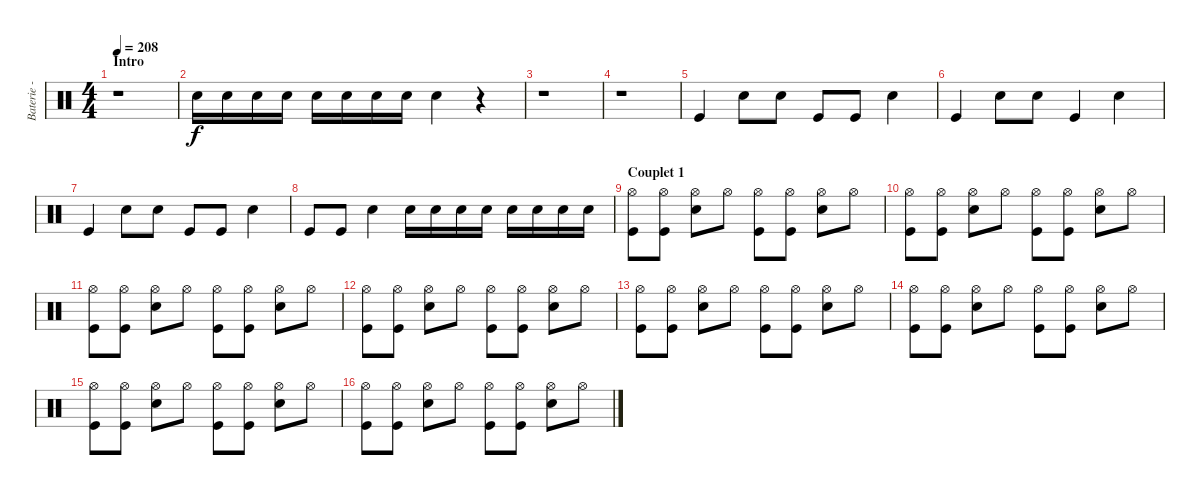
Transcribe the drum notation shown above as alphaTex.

\track ("Baterie - Guillaume" "Baterie - ") {instrument percussion}
\staff {score}
\articulation defaults
\ts (4 4)
\section ("" "Intro")
\tempo 208
\clef neutral
\ks c
r.1{dy f} |
"Electric Snare (hit)".16 "Electric Snare (hit)".16 "Electric Snare (hit)".16 "Electric Snare (hit)".16 "Electric Snare (hit)".16 "Electric Snare (hit)".16 "Electric Snare (hit)".16 "Electric Snare (hit)".16 "Electric Snare (hit)".4 r.4 |
r.1 |
r.1 |
"Kick (hit)".4 "Electric Snare (hit)".8 "Electric Snare (hit)".8 "Kick (hit)".8 "Kick (hit)".8 "Electric Snare (hit)".4 |
"Kick (hit)".4 "Electric Snare (hit)".8 "Electric Snare (hit)".8 "Kick (hit)".4 "Electric Snare (hit)".4 |
"Kick (hit)".4 "Electric Snare (hit)".8 "Electric Snare (hit)".8 "Kick (hit)".8 "Kick (hit)".8 "Electric Snare (hit)".4 |
"Kick (hit)".8 "Kick (hit)".8 "Electric Snare (hit)".4 "Electric Snare (hit)".16 "Electric Snare (hit)".16 "Electric Snare (hit)".16 "Electric Snare (hit)".16 "Electric Snare (hit)".16 "Electric Snare (hit)".16 "Electric Snare (hit)".16 "Electric Snare (hit)".16 |
\section ("" "Couplet 1")
("Hi-Hat (open)" "Kick (hit)").8 ("Hi-Hat (open)" "Kick (hit)").8 ("Hi-Hat (open)" "Electric Snare (hit)").8 "Hi-Hat (open)".8 ("Hi-Hat (open)" "Kick (hit)").8 ("Hi-Hat (open)" "Kick (hit)").8 ("Hi-Hat (open)" "Electric Snare (hit)").8 "Hi-Hat (open)".8 |
("Hi-Hat (open)" "Kick (hit)").8 ("Hi-Hat (open)" "Kick (hit)").8 ("Hi-Hat (open)" "Electric Snare (hit)").8 "Hi-Hat (open)".8 ("Hi-Hat (open)" "Kick (hit)").8 ("Hi-Hat (open)" "Kick (hit)").8 ("Hi-Hat (open)" "Electric Snare (hit)").8 "Hi-Hat (open)".8 |
("Hi-Hat (open)" "Kick (hit)").8 ("Hi-Hat (open)" "Kick (hit)").8 ("Hi-Hat (open)" "Electric Snare (hit)").8 "Hi-Hat (open)".8 ("Hi-Hat (open)" "Kick (hit)").8 ("Hi-Hat (open)" "Kick (hit)").8 ("Hi-Hat (open)" "Electric Snare (hit)").8 "Hi-Hat (open)".8 |
("Hi-Hat (open)" "Kick (hit)").8 ("Hi-Hat (open)" "Kick (hit)").8 ("Hi-Hat (open)" "Electric Snare (hit)").8 "Hi-Hat (open)".8 ("Hi-Hat (open)" "Kick (hit)").8 ("Hi-Hat (open)" "Kick (hit)").8 ("Hi-Hat (open)" "Electric Snare (hit)").8 "Hi-Hat (open)".8 |
("Hi-Hat (open)" "Kick (hit)").8 ("Hi-Hat (open)" "Kick (hit)").8 ("Hi-Hat (open)" "Electric Snare (hit)").8 "Hi-Hat (open)".8 ("Hi-Hat (open)" "Kick (hit)").8 ("Hi-Hat (open)" "Kick (hit)").8 ("Hi-Hat (open)" "Electric Snare (hit)").8 "Hi-Hat (open)".8 |
("Hi-Hat (open)" "Kick (hit)").8 ("Hi-Hat (open)" "Kick (hit)").8 ("Hi-Hat (open)" "Electric Snare (hit)").8 "Hi-Hat (open)".8 ("Hi-Hat (open)" "Kick (hit)").8 ("Hi-Hat (open)" "Kick (hit)").8 ("Hi-Hat (open)" "Electric Snare (hit)").8 "Hi-Hat (open)".8 |
("Hi-Hat (open)" "Kick (hit)").8 ("Hi-Hat (open)" "Kick (hit)").8 ("Hi-Hat (open)" "Electric Snare (hit)").8 "Hi-Hat (open)".8 ("Hi-Hat (open)" "Kick (hit)").8 ("Hi-Hat (open)" "Kick (hit)").8 ("Hi-Hat (open)" "Electric Snare (hit)").8 "Hi-Hat (open)".8 |
("Hi-Hat (open)" "Kick (hit)").8 ("Hi-Hat (open)" "Kick (hit)").8 ("Hi-Hat (open)" "Electric Snare (hit)").8 "Hi-Hat (open)".8 ("Hi-Hat (open)" "Kick (hit)").8 ("Hi-Hat (open)" "Kick (hit)").8 ("Hi-Hat (open)" "Electric Snare (hit)").8 "Hi-Hat (open)".8
